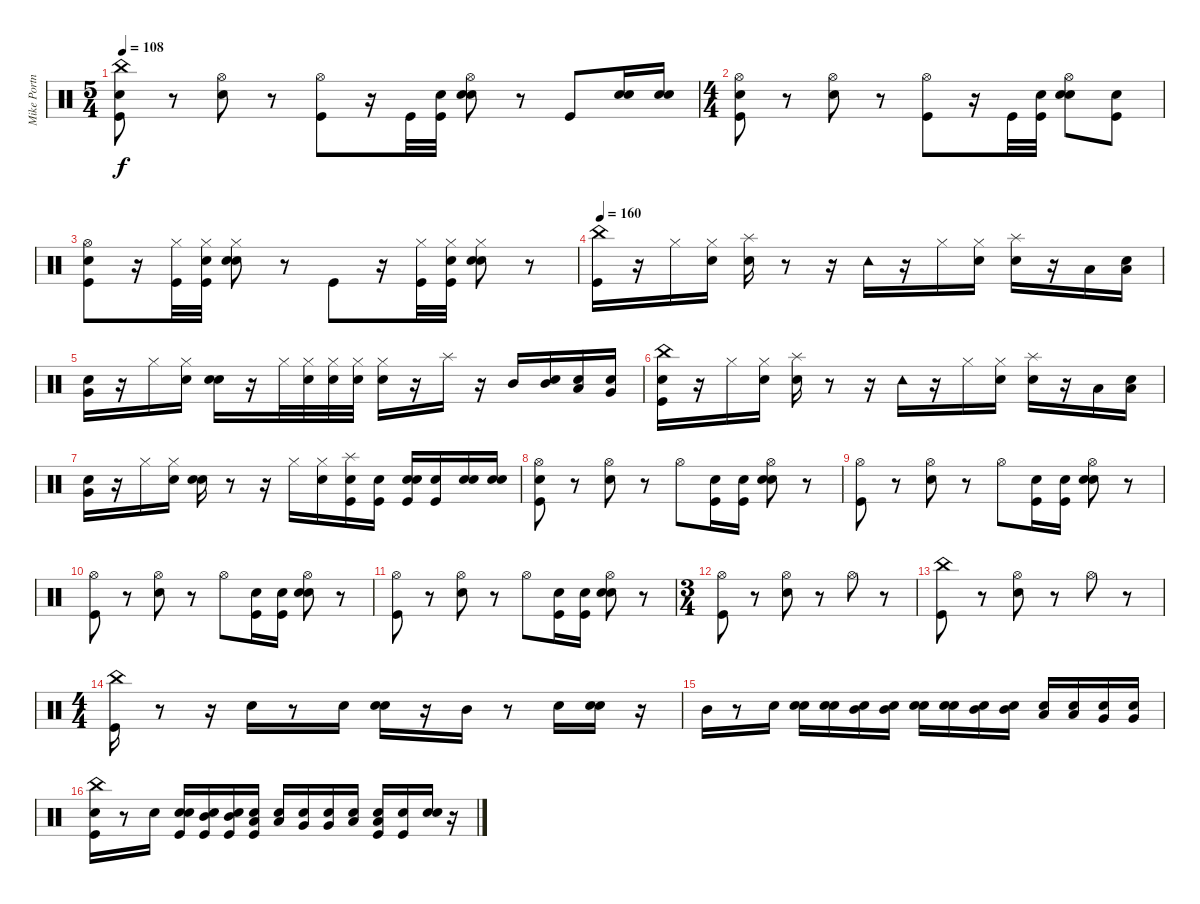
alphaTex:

\track ("Mike Portnoy" "Mike Portn") {instrument percussion}
\staff {score}
\articulation defaults
\ts (5 4)
\tempo 108
\clef neutral
\ks c
("Snare (hit)" "Kick (hit)" "China (hit)").8{dy f} r.8 ("Snare (hit) 2" "Hi-Hat (open)").8 r.8 ("Kick (hit)" "Hi-Hat (open)").8 r.16 "Kick (hit)".32 ("Snare (hit)" "Kick (hit)").32 ("Snare (hit)" "Snare (hit) 2" "Hi-Hat (open)").8 r.8 "Kick (hit)".8 ("Snare (hit)" "Snare (hit) 2").16 ("Snare (hit)" "Snare (hit) 2").16 |
\ts (4 4)
("Snare (hit)" "Kick (hit)" "Hi-Hat (open)").8 r.8 ("Snare (hit) 2" "Hi-Hat (open)").8 r.8 ("Kick (hit)" "Hi-Hat (open)").8 r.16 "Kick (hit)".32 ("Snare (hit)" "Kick (hit)").32 ("Snare (hit)" "Snare (hit) 2" "Hi-Hat (open)").8 ("Snare (hit)" "Kick (hit)").8 |
("Snare (hit)" "Kick (hit)" "Hi-Hat (open)").8 r.16 ("Kick (hit)" "Hi-Hat (closed)").32 ("Snare (hit)" "Kick (hit)" "Hi-Hat (closed)").32 ("Snare (hit)" "Snare (hit) 2" "Hi-Hat (closed)").8 r.8 "Kick (hit)".8 r.16 ("Kick (hit)" "Hi-Hat (closed)").32 ("Snare (hit)" "Kick (hit)" "Hi-Hat (closed)").32 ("Snare (hit)" "Snare (hit) 2" "Hi-Hat (closed)").8 r.8 |
\tempo 160
("Kick (hit)" "China (hit)").16 r.16 "Hi-Hat (closed)".16 ("Snare (hit)" "Hi-Hat (closed)").16 ("Snare (hit)" "Splash (hit)").16 r.8 r.16 "Tambourine (hit)".16 r.16 "Hi-Hat (closed)".16 ("Snare (hit)" "Hi-Hat (closed)").16 ("Snare (hit)" "Splash (hit)").16 r.16 "Low Tom (hit)".16 ("Snare (hit)" "Low Tom (hit)").16 |
("Snare (hit)" "Very Low Tom (hit)").16 r.16 "Hi-Hat (closed)".16 ("Snare (hit)" "Hi-Hat (closed)").16 ("Snare (hit)" "Snare (hit) 2").16 r.16 "Hi-Hat (closed)".32 ("Snare (hit)" "Hi-Hat (closed)").32 ("Snare (hit)" "Hi-Hat (closed)").32 ("Snare (hit)" "Hi-Hat (closed)").32 ("Snare (hit)" "Hi-Hat (closed)").16 r.16 "Splash (hit)".16 r.16 "Mid Tom (hit)".16 ("Snare (hit)" "Mid Tom (hit)").16 ("Snare (hit)" "Low Tom (hit)").16 ("Snare (hit)" "Very Low Tom (hit)").16 |
("Snare (hit)" "Kick (hit)" "China (hit)").16 r.16 "Hi-Hat (closed)".16 ("Snare (hit)" "Hi-Hat (closed)").16 ("Snare (hit)" "Splash (hit)").16 r.8 r.16 "Tambourine (hit)".16 r.16 "Hi-Hat (closed)".16 ("Snare (hit)" "Hi-Hat (closed)").16 ("Snare (hit)" "Splash (hit)").16 r.16 "Low Tom (hit)".16 ("Snare (hit)" "Low Tom (hit)").16 |
("Snare (hit)" "Very Low Tom (hit)").16 r.16 "Hi-Hat (closed)".16 ("Snare (hit)" "Hi-Hat (closed)").16 ("Snare (hit)" "Snare (hit) 2").16 r.8 r.16 "Hi-Hat (closed)".16 ("Snare (hit)" "Hi-Hat (closed)").16 ("Snare (hit)" "Kick (hit)" "Splash (hit)").16 ("Snare (hit)" "Kick (hit)").16 ("Snare (hit)" "Kick (hit)" "Snare (hit) 2").16 ("Snare (hit)" "Kick (hit)").16 ("Snare (hit)" "Snare (hit) 2").16 ("Snare (hit)" "Snare (hit) 2").16 |
("Snare (hit)" "Kick (hit)" "Hi-Hat (open)").8 r.8 ("Snare (hit) 2" "Hi-Hat (open)").8 r.8 "Hi-Hat (open)".8 ("Snare (hit)" "Kick (hit)").16 ("Snare (hit)" "Kick (hit)").16 ("Snare (hit)" "Snare (hit) 2" "Hi-Hat (open)").8 r.8 |
("Kick (hit)" "Hi-Hat (open)").8 r.8 ("Snare (hit) 2" "Hi-Hat (open)").8 r.8 "Hi-Hat (open)".8 ("Snare (hit)" "Kick (hit)").16 ("Snare (hit)" "Kick (hit)").16 ("Snare (hit)" "Snare (hit) 2" "Hi-Hat (open)").8 r.8 |
("Kick (hit)" "Hi-Hat (open)").8 r.8 ("Snare (hit) 2" "Hi-Hat (open)").8 r.8 "Hi-Hat (open)".8 ("Snare (hit)" "Kick (hit)").16 ("Snare (hit)" "Kick (hit)").16 ("Snare (hit)" "Snare (hit) 2" "Hi-Hat (open)").8 r.8 |
("Kick (hit)" "Hi-Hat (open)").8 r.8 ("Snare (hit) 2" "Hi-Hat (open)").8 r.8 "Hi-Hat (open)".8 ("Snare (hit)" "Kick (hit)").16 ("Snare (hit)" "Kick (hit)").16 ("Snare (hit)" "Snare (hit) 2" "Hi-Hat (open)").8 r.8 |
\ts (3 4)
("Kick (hit)" "Hi-Hat (open)").8 r.8 ("Snare (hit) 2" "Hi-Hat (open)").8 r.8 "Hi-Hat (open)".8 r.8 |
("Kick (hit)" "China (hit)").8 r.8 ("Snare (hit) 2" "Hi-Hat (open)").8 r.8 "Hi-Hat (open)".8 r.8 |
\ts (4 4)
("Kick (hit)" "China (hit)").16 r.8 r.16 "Snare (hit) 2".16 r.8 "Snare (hit) 2".16 ("Snare (hit)" "Snare (hit) 2").16 r.16 "Mid Tom (hit)".16 r.8 "Snare (hit) 2".16 ("Snare (hit)" "Snare (hit) 2").16 r.16 |
"Mid Tom (hit)".16 r.8 "Snare (hit) 2".16 ("Snare (hit)" "Snare (hit) 2").16 ("Snare (hit)" "Snare (hit) 2").16 ("Snare (hit)" "Mid Tom (hit)").16 ("Snare (hit)" "Mid Tom (hit)").16 ("Snare (hit)" "Snare (hit) 2").16 ("Snare (hit)" "Snare (hit) 2").16 ("Snare (hit)" "Mid Tom (hit)").16 ("Snare (hit)" "Mid Tom (hit)").16 ("Snare (hit)" "Low Tom (hit)").16 ("Snare (hit)" "Low Tom (hit)").16 ("Snare (hit)" "Very Low Tom (hit)").16 ("Snare (hit)" "Very Low Tom (hit)").16 |
("Snare (hit)" "Kick (hit)" "China (hit)").16 r.8 "Snare (hit) 2".16 ("Snare (hit)" "Kick (hit)" "Snare (hit) 2").16 ("Snare (hit)" "Kick (hit)" "Mid Tom (hit)").16 ("Snare (hit)" "Kick (hit)" "Mid Tom (hit)").16 ("Snare (hit)" "Kick (hit)" "Low Tom (hit)").16 ("Snare (hit)" "Low Tom (hit)").16 ("Snare (hit)" "Very Low Tom (hit)").16 ("Snare (hit)" "Very Low Tom (hit)").16 ("Snare (hit)" "Low Floor Tom (hit)").16 ("Snare (hit)" "Kick (hit)" "Low Floor Tom (hit)").16 ("Snare (hit)" "Kick (hit)").16 ("Snare (hit)" "Snare (hit) 2").16 r.16
